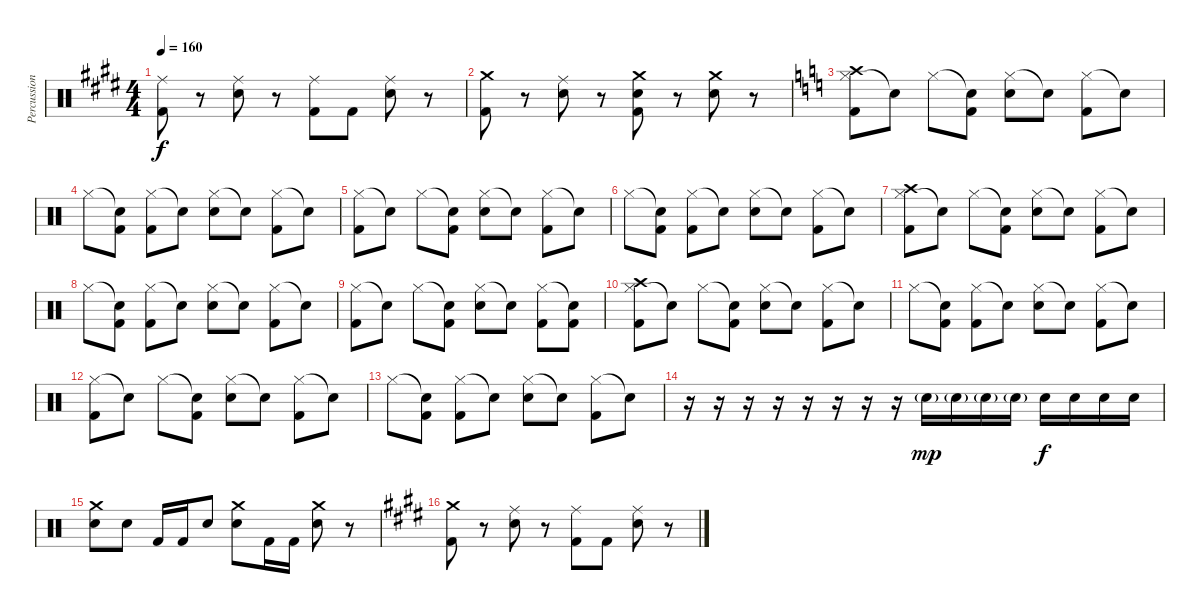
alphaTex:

\track ("Percussion" "Percussion") {instrument percussion}
\staff {score}
\articulation defaults
\ts (4 4)
\tempo 160
\clef neutral
\ks e
("Ride (middle)" "Kick (hit) 2").8{dy f} r.8 ("Ride (middle)" "Snare (hit) 2").8 r.8 ("Ride (middle)" "Kick (hit) 2").8 "Kick (hit) 2".8 ("Ride (middle)" "Snare (hit) 2").8 r.8 |
("Crash medium (hit)" "Kick (hit) 2").8 r.8 ("Ride (middle)" "Snare (hit) 2").8 r.8 ("Crash medium (hit)" "Snare (hit) 2" "Kick (hit) 2").8 r.8 ("Crash medium (hit)" "Snare (hit) 2").8 r.8 |
\ks c
("Hi-Hat (closed)" "Kick (hit) 2" "Crash high (hit)").8 "Snare (hit)"{t}.8 "Hi-Hat (closed)".8 ("Snare (hit)"{t} "Kick (hit) 2").8 ("Hi-Hat (closed)" "Snare (hit) 2").8 "Snare (hit)"{t}.8 ("Hi-Hat (closed)" "Kick (hit) 2").8 "Snare (hit)"{t}.8 |
"Hi-Hat (closed)".8 ("Snare (hit)"{t} "Kick (hit) 2").8 ("Hi-Hat (closed)" "Kick (hit) 2").8 "Snare (hit)"{t}.8 ("Hi-Hat (closed)" "Snare (hit) 2").8 "Snare (hit)"{t}.8 ("Hi-Hat (closed)" "Kick (hit) 2").8 "Snare (hit)"{t}.8 |
("Hi-Hat (closed)" "Kick (hit) 2").8 "Snare (hit)"{t}.8 "Hi-Hat (closed)".8 ("Snare (hit)"{t} "Kick (hit) 2").8 ("Hi-Hat (closed)" "Snare (hit) 2").8 "Snare (hit)"{t}.8 ("Hi-Hat (closed)" "Kick (hit) 2").8 "Snare (hit)"{t}.8 |
"Hi-Hat (closed)".8 ("Snare (hit)"{t} "Kick (hit) 2").8 ("Hi-Hat (closed)" "Kick (hit) 2").8 "Snare (hit)"{t}.8 ("Hi-Hat (closed)" "Snare (hit) 2").8 "Snare (hit)"{t}.8 ("Hi-Hat (closed)" "Kick (hit) 2").8 "Snare (hit)"{t}.8 |
("Hi-Hat (closed)" "Kick (hit) 2" "Crash high (hit)").8 "Snare (hit)"{t}.8 "Hi-Hat (closed)".8 ("Snare (hit)"{t} "Kick (hit) 2").8 ("Hi-Hat (closed)" "Snare (hit) 2").8 "Snare (hit)"{t}.8 ("Hi-Hat (closed)" "Kick (hit) 2").8 "Snare (hit)"{t}.8 |
"Hi-Hat (closed)".8 ("Snare (hit)"{t} "Kick (hit) 2").8 ("Hi-Hat (closed)" "Kick (hit) 2").8 "Snare (hit)"{t}.8 ("Hi-Hat (closed)" "Snare (hit) 2").8 "Snare (hit)"{t}.8 ("Hi-Hat (closed)" "Kick (hit) 2").8 "Snare (hit)"{t}.8 |
("Hi-Hat (closed)" "Kick (hit) 2").8 "Snare (hit)"{t}.8 "Hi-Hat (closed)".8 ("Snare (hit)"{t} "Kick (hit) 2").8 ("Hi-Hat (closed)" "Electric Snare (hit)").8 "Snare (hit)"{t}.8 ("Hi-Hat (closed)" "Kick (hit) 2").8 ("Snare (hit)"{t} "Kick (hit) 2").8 |
("Hi-Hat (closed)" "Kick (hit) 2" "Crash high (hit)").8 "Snare (hit)"{t}.8 "Hi-Hat (closed)".8 ("Snare (hit)"{t} "Kick (hit) 2").8 ("Hi-Hat (closed)" "Snare (hit) 2").8 "Snare (hit)"{t}.8 ("Hi-Hat (closed)" "Kick (hit) 2").8 "Snare (hit)"{t}.8 |
"Hi-Hat (closed)".8 ("Snare (hit)"{t} "Kick (hit) 2").8 ("Hi-Hat (closed)" "Kick (hit) 2").8 "Snare (hit)"{t}.8 ("Hi-Hat (closed)" "Snare (hit) 2").8 "Snare (hit)"{t}.8 ("Hi-Hat (closed)" "Kick (hit) 2").8 "Snare (hit)"{t}.8 |
("Hi-Hat (closed)" "Kick (hit) 2").8 "Snare (hit)"{t}.8 "Hi-Hat (closed)".8 ("Snare (hit)"{t} "Kick (hit) 2").8 ("Hi-Hat (closed)" "Snare (hit) 2").8 "Snare (hit)"{t}.8 ("Hi-Hat (closed)" "Kick (hit) 2").8 "Snare (hit)"{t}.8 |
"Hi-Hat (closed)".8 ("Snare (hit)"{t} "Kick (hit) 2").8 ("Hi-Hat (closed)" "Kick (hit) 2").8 "Snare (hit)"{t}.8 ("Hi-Hat (closed)" "Snare (hit) 2").8 "Snare (hit)"{t}.8 ("Hi-Hat (closed)" "Kick (hit) 2").8 "Snare (hit)"{t}.8 |
r.16 r.16 r.16 r.16 r.16 r.16 r.16 r.16 "Snare (hit) 2"{g}.16{dy mp} "Snare (hit) 2"{g}.16 "Snare (hit) 2"{g}.16 "Snare (hit) 2"{g}.16 "Snare (hit) 2".16{dy f} "Snare (hit) 2".16 "Snare (hit) 2".16 "Snare (hit) 2".16 |
("Crash medium (hit)" "Snare (hit) 2").8 "Snare (hit) 2".8 "Kick (hit) 2".16 "Kick (hit) 2".16 "Snare (hit) 2".8 ("Crash medium (hit)" "Snare (hit) 2").8 "Kick (hit) 2".16 "Kick (hit) 2".16 ("Crash medium (hit)" "Snare (hit) 2").8 r.8 |
\ks e
("Crash medium (hit)" "Kick (hit) 2").8 r.8 ("Ride (middle)" "Snare (hit) 2").8 r.8 ("Ride (middle)" "Kick (hit) 2").8 "Kick (hit) 2".8 ("Ride (middle)" "Snare (hit) 2").8 r.8
